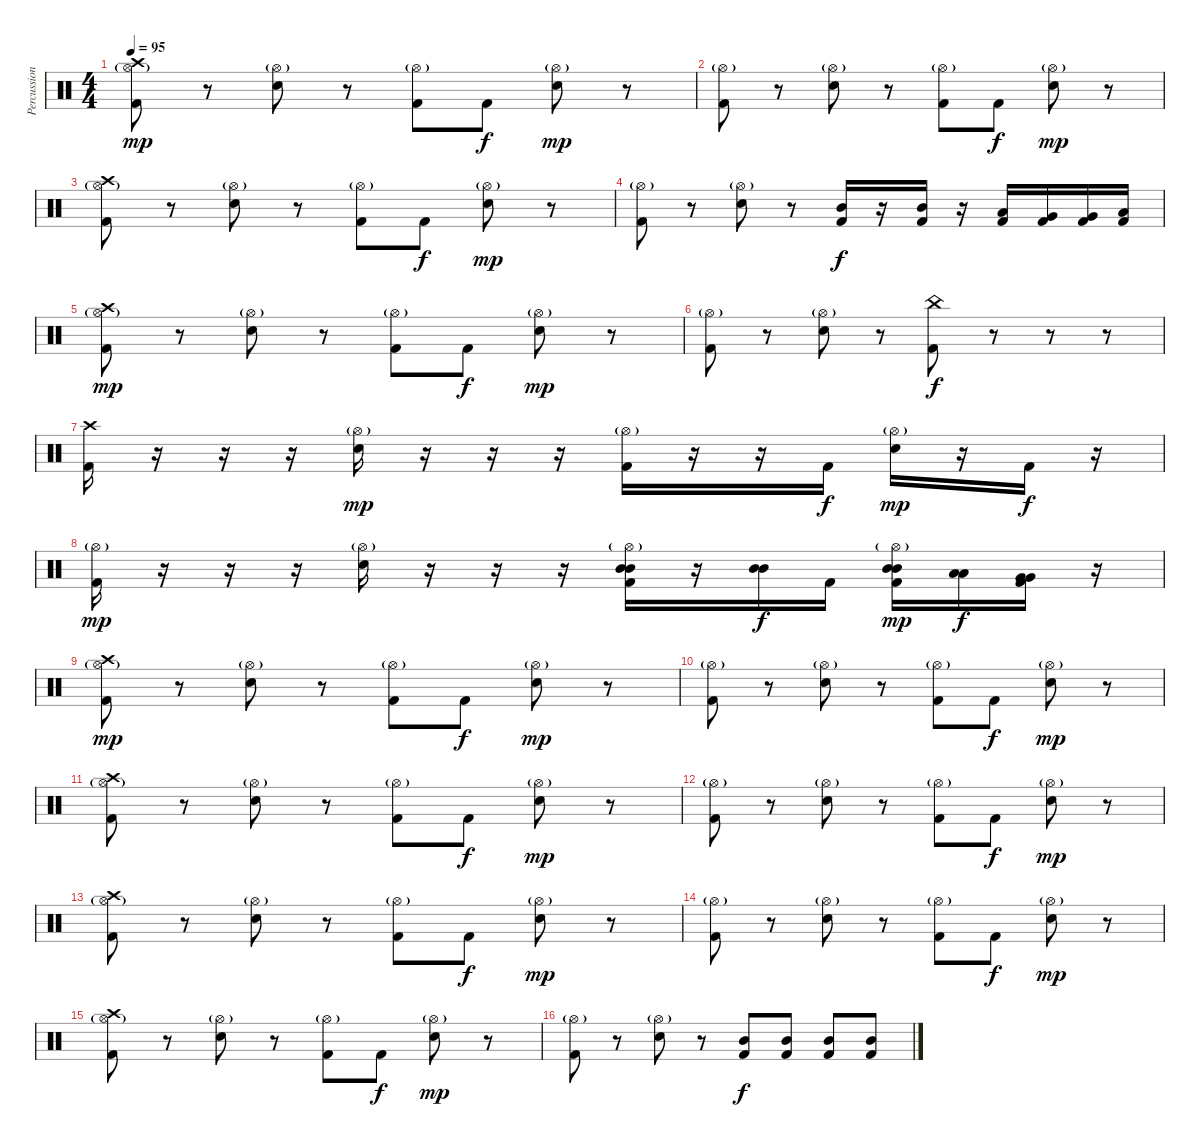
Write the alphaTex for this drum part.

\track ("Percussions" "Percussion") {instrument percussion}
\staff {score}
\articulation defaults
\ts (4 4)
\tempo 95
\clef neutral
\ks c
("Hi-Hat (open)"{g} "Crash high (hit)" "Kick (hit) 2").8{dy mp} r.8 ("Hi-Hat (open)"{g} "Snare (hit) 2").8 r.8 ("Hi-Hat (open)"{g} "Kick (hit) 2").8 "Kick (hit) 2".8{dy f} ("Hi-Hat (open)"{g} "Snare (hit) 2").8{dy mp} r.8 |
("Hi-Hat (open)"{g} "Kick (hit) 2").8 r.8 ("Hi-Hat (open)"{g} "Snare (hit) 2").8 r.8 ("Hi-Hat (open)"{g} "Kick (hit) 2").8 "Kick (hit) 2".8{dy f} ("Hi-Hat (open)"{g} "Snare (hit) 2").8{dy mp} r.8 |
("Hi-Hat (open)"{g} "Crash high (hit)" "Kick (hit) 2").8 r.8 ("Hi-Hat (open)"{g} "Snare (hit) 2").8 r.8 ("Hi-Hat (open)"{g} "Kick (hit) 2").8 "Kick (hit) 2".8{dy f} ("Hi-Hat (open)"{g} "Snare (hit) 2").8{dy mp} r.8 |
("Hi-Hat (open)"{g} "Kick (hit) 2").8 r.8 ("Hi-Hat (open)"{g} "Snare (hit) 2").8 r.8 ("Mid Tom (hit)" "Kick (hit) 2").16{dy f} r.16 ("Mid Tom (hit)" "Kick (hit) 2").16 r.16 ("Low Tom (hit)" "Kick (hit) 2").16 ("Very Low Tom (hit)" "Kick (hit) 2").16 ("Very Low Tom (hit)" "Kick (hit) 2").16 ("Low Floor Tom (hit)" "Kick (hit) 2").16 |
("Hi-Hat (open)"{g} "Crash high (hit)" "Kick (hit) 2").8{dy mp} r.8 ("Hi-Hat (open)"{g} "Snare (hit) 2").8 r.8 ("Hi-Hat (open)"{g} "Kick (hit) 2").8 "Kick (hit) 2".8{dy f} ("Hi-Hat (open)"{g} "Snare (hit) 2").8{dy mp} r.8 |
("Hi-Hat (open)"{g} "Kick (hit) 2").8 r.8 ("Hi-Hat (open)"{g} "Snare (hit) 2").8 r.8 ("China (hit)" "Kick (hit) 2").8{dy f} r.8 r.8 r.8 |
("Crash high (hit)" "Kick (hit) 2").16 r.16 r.16 r.16 ("Hi-Hat (open)"{g} "Snare (hit) 2").16{dy mp} r.16 r.16 r.16 ("Hi-Hat (open)"{g} "Kick (hit) 2").16 r.16 r.16 "Kick (hit) 2".16{dy f} ("Hi-Hat (open)"{g} "Snare (hit) 2").16{dy mp} r.16 "Kick (hit) 2".16{dy f} r.16 |
("Hi-Hat (open)"{g} "Kick (hit) 2").16{dy mp} r.16 r.16 r.16 ("Hi-Hat (open)"{g} "Snare (hit) 2").16 r.16 r.16 r.16 ("Hi-Hat (open)"{g} "Mid Tom (hit)" "Mid Tom (hit)" "Kick (hit) 2").16 r.16 ("Mid Tom (hit)" "Mid Tom (hit)").16{dy f} "Kick (hit) 2".16 ("Hi-Hat (open)"{g} "Mid Tom (hit)" "Mid Tom (hit)" "Kick (hit) 2").16{dy mp} ("Low Tom (hit)" "Low Tom (hit)").16{dy f} ("Very Low Tom (hit)" "Very Low Tom (hit)" "Kick (hit) 2").16 r.16 |
("Hi-Hat (open)"{g} "Crash high (hit)" "Kick (hit) 2").8{dy mp} r.8 ("Hi-Hat (open)"{g} "Snare (hit) 2").8 r.8 ("Hi-Hat (open)"{g} "Kick (hit) 2").8 "Kick (hit) 2".8{dy f} ("Hi-Hat (open)"{g} "Snare (hit) 2").8{dy mp} r.8 |
("Hi-Hat (open)"{g} "Kick (hit) 2").8 r.8 ("Hi-Hat (open)"{g} "Snare (hit) 2").8 r.8 ("Hi-Hat (open)"{g} "Kick (hit) 2").8 "Kick (hit) 2".8{dy f} ("Hi-Hat (open)"{g} "Snare (hit) 2").8{dy mp} r.8 |
("Hi-Hat (open)"{g} "Crash high (hit)" "Kick (hit) 2").8 r.8 ("Hi-Hat (open)"{g} "Snare (hit) 2").8 r.8 ("Hi-Hat (open)"{g} "Kick (hit) 2").8 "Kick (hit) 2".8{dy f} ("Hi-Hat (open)"{g} "Snare (hit) 2").8{dy mp} r.8 |
("Hi-Hat (open)"{g} "Kick (hit) 2").8 r.8 ("Hi-Hat (open)"{g} "Snare (hit) 2").8 r.8 ("Hi-Hat (open)"{g} "Kick (hit) 2").8 "Kick (hit) 2".8{dy f} ("Hi-Hat (open)"{g} "Snare (hit) 2").8{dy mp} r.8 |
("Hi-Hat (open)"{g} "Crash high (hit)" "Kick (hit) 2").8 r.8 ("Hi-Hat (open)"{g} "Snare (hit) 2").8 r.8 ("Hi-Hat (open)"{g} "Kick (hit) 2").8 "Kick (hit) 2".8{dy f} ("Hi-Hat (open)"{g} "Snare (hit) 2").8{dy mp} r.8 |
("Hi-Hat (open)"{g} "Kick (hit) 2").8 r.8 ("Hi-Hat (open)"{g} "Snare (hit) 2").8 r.8 ("Hi-Hat (open)"{g} "Kick (hit) 2").8 "Kick (hit) 2".8{dy f} ("Hi-Hat (open)"{g} "Snare (hit) 2").8{dy mp} r.8 |
("Hi-Hat (open)"{g} "Crash high (hit)" "Kick (hit) 2").8 r.8 ("Hi-Hat (open)"{g} "Snare (hit) 2").8 r.8 ("Hi-Hat (open)"{g} "Kick (hit) 2").8 "Kick (hit) 2".8{dy f} ("Hi-Hat (open)"{g} "Snare (hit) 2").8{dy mp} r.8 |
("Hi-Hat (open)"{g} "Kick (hit) 2").8 r.8 ("Hi-Hat (open)"{g} "Snare (hit) 2").8 r.8 ("Kick (hit) 2" "Mid Tom (hit)").8{dy f} ("Kick (hit) 2" "Mid Tom (hit)").8 ("Kick (hit) 2" "Mid Tom (hit)").8 ("Kick (hit) 2" "Mid Tom (hit)").8
